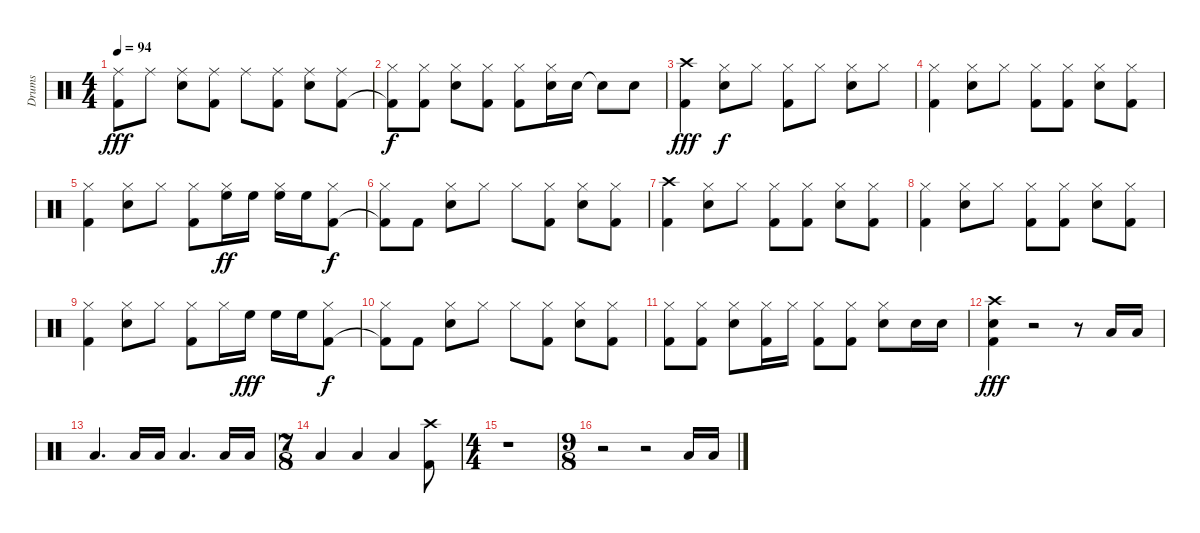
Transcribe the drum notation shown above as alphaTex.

\track ("Drums" "Drums") {instrument percussion}
\staff {score}
\articulation defaults
\ts (4 4)
\tempo 94
\clef neutral
\ks c
("Ride (middle)" "Kick (hit) 2").8{dy fff} "Ride (middle)".8 ("Ride (middle)" "Snare (hit) 2").8 ("Ride (middle)" "Kick (hit) 2").8 "Ride (middle)".8 ("Ride (middle)" "Kick (hit) 2").8 ("Ride (middle)" "Snare (hit) 2").8 ("Ride (middle)" "Kick (hit) 2").8 |
("Hi-Hat (closed)" "Kick (hit) 2"{t}).8{dy f} ("Hi-Hat (closed)" "Kick (hit) 2").8 ("Hi-Hat (closed)" "Snare (hit) 2").8 ("Hi-Hat (closed)" "Kick (hit) 2").8 ("Hi-Hat (closed)" "Kick (hit) 2").8 ("Hi-Hat (closed)" "Snare (hit) 2").16 "Snare (hit) 2".16 "Snare (hit) 2"{t}.8 "Snare (hit) 2".8 |
("Crash high (hit)" "Kick (hit) 2").4{dy fff} ("Hi-Hat (closed)" "Snare (hit) 2").8{dy f} "Hi-Hat (closed)".8 ("Hi-Hat (closed)" "Kick (hit) 2").8 "Hi-Hat (closed)".8 ("Hi-Hat (closed)" "Snare (hit) 2").8 "Hi-Hat (closed)".8 |
("Hi-Hat (closed)" "Kick (hit) 2").4 ("Hi-Hat (closed)" "Snare (hit) 2").8 "Hi-Hat (closed)".8 ("Hi-Hat (closed)" "Kick (hit) 2").8 ("Hi-Hat (closed)" "Kick (hit) 2").8 ("Hi-Hat (closed)" "Snare (hit) 2").8 ("Hi-Hat (closed)" "Kick (hit) 2").8 |
("Hi-Hat (closed)" "Kick (hit) 2").4 ("Hi-Hat (closed)" "Snare (hit) 2").8 "Hi-Hat (closed)".8 ("Hi-Hat (closed)" "Kick (hit) 2").8 ("Hi-Hat (closed)" "High Floor Tom (hit)").16{dy ff} "High Floor Tom (hit)".16 ("Hi-Hat (closed)" "High Floor Tom (hit)").16 "High Floor Tom (hit)".16 ("Hi-Hat (closed)" "Kick (hit) 2").8{dy f} |
("Hi-Hat (closed)" "Kick (hit) 2"{t}).8 "Kick (hit) 2".8 ("Hi-Hat (closed)" "Snare (hit) 2").8 "Hi-Hat (closed)".8 "Hi-Hat (closed)".8 ("Hi-Hat (closed)" "Kick (hit) 2").8 ("Hi-Hat (closed)" "Snare (hit) 2").8 ("Hi-Hat (closed)" "Kick (hit) 2").8 |
("Crash high (hit)" "Kick (hit) 2").4 ("Hi-Hat (closed)" "Snare (hit) 2").8 "Hi-Hat (closed)".8 ("Hi-Hat (closed)" "Kick (hit) 2").8 ("Hi-Hat (closed)" "Kick (hit) 2").8 ("Hi-Hat (closed)" "Snare (hit) 2").8 ("Hi-Hat (closed)" "Kick (hit) 2").8 |
("Hi-Hat (closed)" "Kick (hit) 2").4 ("Hi-Hat (closed)" "Snare (hit) 2").8 "Hi-Hat (closed)".8 ("Hi-Hat (closed)" "Kick (hit) 2").8 ("Hi-Hat (closed)" "Kick (hit) 2").8 ("Hi-Hat (closed)" "Snare (hit) 2").8 ("Hi-Hat (closed)" "Kick (hit) 2").8 |
("Hi-Hat (closed)" "Kick (hit) 2").4 ("Hi-Hat (closed)" "Snare (hit) 2").8 "Hi-Hat (closed)".8 ("Hi-Hat (closed)" "Kick (hit) 2").8 "Hi-Hat (closed)".16 "High Floor Tom (hit)".16{dy fff} "High Floor Tom (hit)".16 "High Floor Tom (hit)".16 ("Hi-Hat (closed)" "Kick (hit) 2").8{dy f} |
("Hi-Hat (closed)" "Kick (hit) 2"{t}).8 "Kick (hit) 2".8 ("Hi-Hat (closed)" "Snare (hit) 2").8 "Hi-Hat (closed)".8 "Hi-Hat (closed)".8 ("Hi-Hat (closed)" "Kick (hit) 2").8 ("Hi-Hat (closed)" "Snare (hit) 2").8 ("Hi-Hat (closed)" "Kick (hit) 2").8 |
("Hi-Hat (closed)" "Kick (hit) 2").8 ("Hi-Hat (closed)" "Kick (hit) 2").8 ("Hi-Hat (closed)" "Snare (hit) 2").8 ("Hi-Hat (closed)" "Kick (hit) 2").16 "Hi-Hat (closed)".16 ("Hi-Hat (closed)" "Kick (hit) 2").8 ("Hi-Hat (closed)" "Kick (hit) 2").8 ("Hi-Hat (closed)" "Snare (hit) 2").8 "Snare (hit) 2".16 "Snare (hit) 2".16 |
("Crash high (hit)" "Snare (hit) 2" "Kick (hit) 2").4{dy fff} r.2 r.8 "Low Floor Tom (hit)".16 "Low Floor Tom (hit)".16 |
"Low Floor Tom (hit)".4{d} "Low Floor Tom (hit)".16 "Low Floor Tom (hit)".16 "Low Floor Tom (hit)".4{d} "Low Floor Tom (hit)".16 "Low Floor Tom (hit)".16 |
\ts (7 8)
"Low Floor Tom (hit)".4 "Low Floor Tom (hit)".4 "Low Floor Tom (hit)".4 ("Crash high (hit)" "Kick (hit) 2").8 |
\ts (4 4)
r.1 |
\ts (9 8)
r.2 r.2 "Low Floor Tom (hit)".16 "Low Floor Tom (hit)".16
